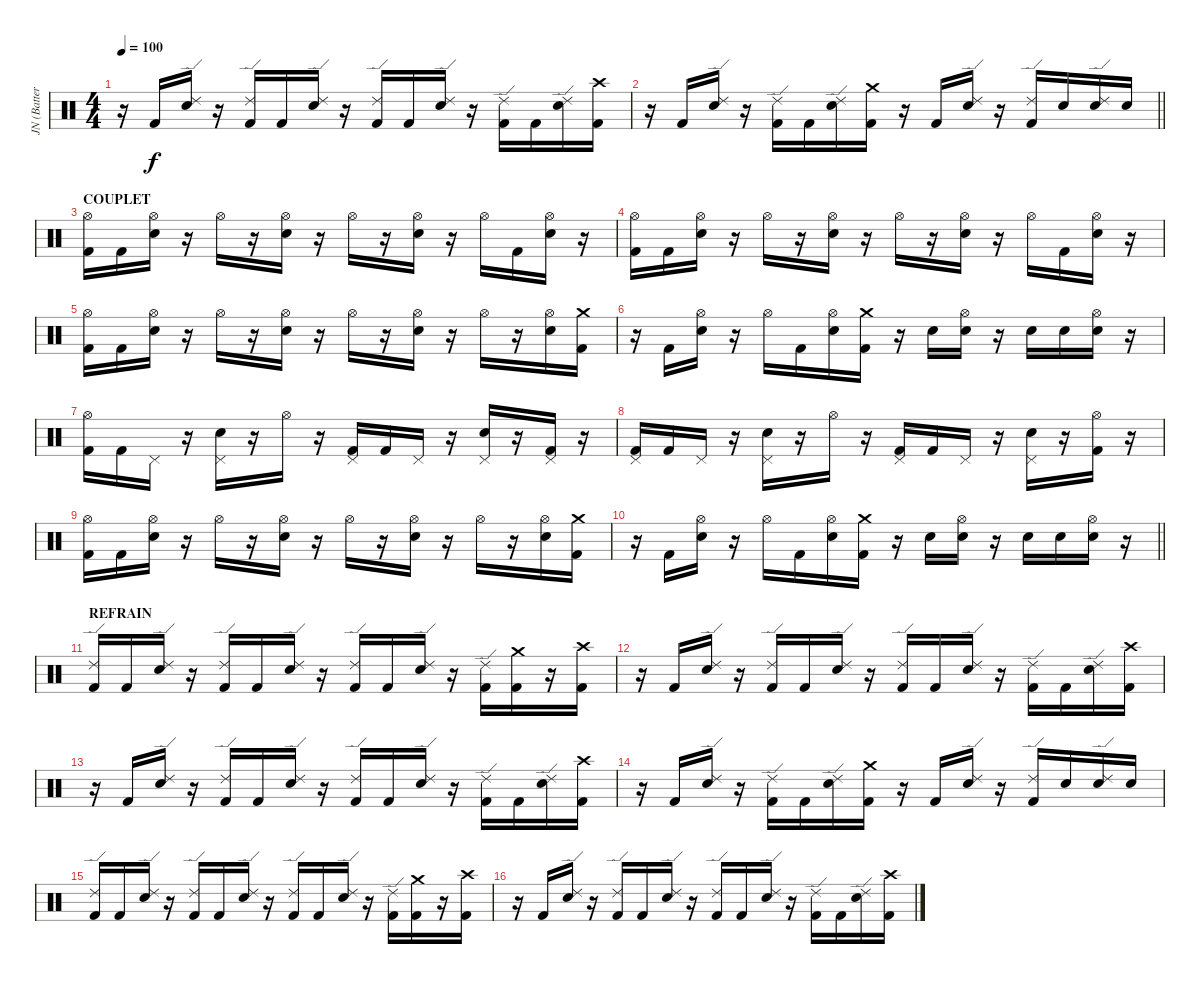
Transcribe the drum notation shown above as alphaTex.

\track ("JN (Batterie)" "JN (Batter") {instrument percussion}
\staff {score}
\articulation defaults
\ts (4 4)
\tempo 100
\clef neutral
\ks c
r.16{dy f} "Kick (hit) 2".16 ("Ride (edge) 2" "Electric Snare (hit)").16 r.16 ("Ride (edge) 2" "Kick (hit) 2").16 "Kick (hit) 2".16 ("Ride (edge) 2" "Electric Snare (hit)").16 r.16 ("Ride (edge) 2" "Kick (hit) 2").16 "Kick (hit) 2".16 ("Ride (edge) 2" "Electric Snare (hit)").16 r.16 ("Ride (edge) 2" "Kick (hit) 2").16 "Kick (hit) 2".16 ("Ride (edge) 2" "Electric Snare (hit)").16 ("Crash high (hit)" "Kick (hit) 2").16 |
\barLineRight lightlight
r.16 "Kick (hit) 2".16 ("Ride (edge) 2" "Electric Snare (hit)").16 r.16 ("Ride (edge) 2" "Kick (hit) 2").16 "Kick (hit) 2".16 ("Ride (edge) 2" "Electric Snare (hit)").16 ("Crash medium (hit)" "Kick (hit) 2").16 r.16 "Kick (hit) 2".16 ("Ride (edge) 2" "Electric Snare (hit)").16 r.16 ("Ride (edge) 2" "Kick (hit) 2").16 "Electric Snare (hit)".16 ("Ride (edge) 2" "Electric Snare (hit)").16 "Electric Snare (hit)".16 |
\section ("" "COUPLET")
("Hi-Hat (open)" "Kick (hit) 2").16 "Kick (hit) 2".16 ("Hi-Hat (open)" "Electric Snare (hit)").16 r.16 "Hi-Hat (open)".16 r.16 ("Hi-Hat (open)" "Electric Snare (hit)").16 r.16 "Hi-Hat (open)".16 r.16 ("Hi-Hat (open)" "Electric Snare (hit)").16 r.16 "Hi-Hat (open)".16 "Kick (hit) 2".16 ("Hi-Hat (open)" "Electric Snare (hit)").16 r.16 |
("Hi-Hat (open)" "Kick (hit) 2").16 "Kick (hit) 2".16 ("Hi-Hat (open)" "Electric Snare (hit)").16 r.16 "Hi-Hat (open)".16 r.16 ("Hi-Hat (open)" "Electric Snare (hit)").16 r.16 "Hi-Hat (open)".16 r.16 ("Hi-Hat (open)" "Electric Snare (hit)").16 r.16 "Hi-Hat (open)".16 "Kick (hit) 2".16 ("Hi-Hat (open)" "Electric Snare (hit)").16 r.16 |
("Hi-Hat (open)" "Kick (hit) 2").16 "Kick (hit) 2".16 ("Hi-Hat (open)" "Electric Snare (hit)").16 r.16 "Hi-Hat (open)".16 r.16 ("Hi-Hat (open)" "Electric Snare (hit)").16 r.16 "Hi-Hat (open)".16 r.16 ("Hi-Hat (open)" "Electric Snare (hit)").16 r.16 "Hi-Hat (open)".16 r.16 ("Hi-Hat (open)" "Electric Snare (hit)").16 ("Crash medium (hit)" "Kick (hit) 2").16 |
r.16 "Kick (hit) 2".16 ("Hi-Hat (open)" "Electric Snare (hit)").16 r.16 "Hi-Hat (open)".16 "Kick (hit) 2".16 ("Hi-Hat (open)" "Electric Snare (hit)").16 ("Crash medium (hit)" "Kick (hit) 2").16 r.16 "Electric Snare (hit)".16 ("Hi-Hat (open)" "Electric Snare (hit)").16 r.16 "Electric Snare (hit)".16 "Electric Snare (hit)".16 ("Hi-Hat (open)" "Electric Snare (hit)").16 r.16 |
("Hi-Hat (open)" "Kick (hit) 2").16 "Kick (hit) 2".16 "Pedal Hi-Hat (hit)".16 r.16 ("Pedal Hi-Hat (hit)" "Electric Snare (hit)").16 r.16 "Hi-Hat (open)".16 r.16 ("Pedal Hi-Hat (hit)" "Kick (hit) 2").16 "Kick (hit) 2".16 "Pedal Hi-Hat (hit)".16 r.16 ("Pedal Hi-Hat (hit)" "Electric Snare (hit)").16 r.16 ("Pedal Hi-Hat (hit)" "Kick (hit) 2").16 r.16 |
("Pedal Hi-Hat (hit)" "Kick (hit) 2").16 "Kick (hit) 2".16 "Pedal Hi-Hat (hit)".16 r.16 ("Pedal Hi-Hat (hit)" "Electric Snare (hit)").16 r.16 "Hi-Hat (open)".16 r.16 ("Pedal Hi-Hat (hit)" "Kick (hit) 2").16 "Kick (hit) 2".16 "Pedal Hi-Hat (hit)".16 r.16 ("Pedal Hi-Hat (hit)" "Electric Snare (hit)").16 r.16 ("Hi-Hat (open)" "Kick (hit) 2").16 r.16 |
("Hi-Hat (open)" "Kick (hit) 2").16 "Kick (hit) 2".16 ("Hi-Hat (open)" "Electric Snare (hit)").16 r.16 "Hi-Hat (open)".16 r.16 ("Hi-Hat (open)" "Electric Snare (hit)").16 r.16 "Hi-Hat (open)".16 r.16 ("Hi-Hat (open)" "Electric Snare (hit)").16 r.16 "Hi-Hat (open)".16 r.16 ("Hi-Hat (open)" "Electric Snare (hit)").16 ("Crash medium (hit)" "Kick (hit) 2").16 |
\barLineRight lightlight
r.16 "Kick (hit) 2".16 ("Hi-Hat (open)" "Electric Snare (hit)").16 r.16 "Hi-Hat (open)".16 "Kick (hit) 2".16 ("Hi-Hat (open)" "Electric Snare (hit)").16 ("Crash medium (hit)" "Kick (hit) 2").16 r.16 "Electric Snare (hit)".16 ("Hi-Hat (open)" "Electric Snare (hit)").16 r.16 "Electric Snare (hit)".16 "Electric Snare (hit)".16 ("Hi-Hat (open)" "Electric Snare (hit)").16 r.16 |
\section ("" "REFRAIN")
("Ride (edge) 2" "Kick (hit) 2").16 "Kick (hit) 2".16 ("Ride (edge) 2" "Electric Snare (hit)").16 r.16 ("Ride (edge) 2" "Kick (hit) 2").16 "Kick (hit) 2".16 ("Ride (edge) 2" "Electric Snare (hit)").16 r.16 ("Ride (edge) 2" "Kick (hit) 2").16 "Kick (hit) 2".16 ("Ride (edge) 2" "Electric Snare (hit)").16 r.16 ("Ride (edge) 2" "Kick (hit) 2").16 ("Crash medium (hit)" "Kick (hit) 2").16 r.16 ("Crash high (hit)" "Kick (hit) 2").16 |
r.16 "Kick (hit) 2".16 ("Ride (edge) 2" "Electric Snare (hit)").16 r.16 ("Ride (edge) 2" "Kick (hit) 2").16 "Kick (hit) 2".16 ("Ride (edge) 2" "Electric Snare (hit)").16 r.16 ("Ride (edge) 2" "Kick (hit) 2").16 "Kick (hit) 2".16 ("Ride (edge) 2" "Electric Snare (hit)").16 r.16 ("Ride (edge) 2" "Kick (hit) 2").16 "Kick (hit) 2".16 ("Ride (edge) 2" "Electric Snare (hit)").16 ("Crash high (hit)" "Kick (hit) 2").16 |
r.16 "Kick (hit) 2".16 ("Ride (edge) 2" "Electric Snare (hit)").16 r.16 ("Ride (edge) 2" "Kick (hit) 2").16 "Kick (hit) 2".16 ("Ride (edge) 2" "Electric Snare (hit)").16 r.16 ("Ride (edge) 2" "Kick (hit) 2").16 "Kick (hit) 2".16 ("Ride (edge) 2" "Electric Snare (hit)").16 r.16 ("Ride (edge) 2" "Kick (hit) 2").16 "Kick (hit) 2".16 ("Ride (edge) 2" "Electric Snare (hit)").16 ("Crash high (hit)" "Kick (hit) 2").16 |
r.16 "Kick (hit) 2".16 ("Ride (edge) 2" "Electric Snare (hit)").16 r.16 ("Ride (edge) 2" "Kick (hit) 2").16 "Kick (hit) 2".16 ("Ride (edge) 2" "Electric Snare (hit)").16 ("Crash medium (hit)" "Kick (hit) 2").16 r.16 "Kick (hit) 2".16 ("Ride (edge) 2" "Electric Snare (hit)").16 r.16 ("Ride (edge) 2" "Kick (hit) 2").16 "Electric Snare (hit)".16 ("Ride (edge) 2" "Electric Snare (hit)").16 "Electric Snare (hit)".16 |
("Ride (edge) 2" "Kick (hit) 2").16 "Kick (hit) 2".16 ("Ride (edge) 2" "Electric Snare (hit)").16 r.16 ("Ride (edge) 2" "Kick (hit) 2").16 "Kick (hit) 2".16 ("Ride (edge) 2" "Electric Snare (hit)").16 r.16 ("Ride (edge) 2" "Kick (hit) 2").16 "Kick (hit) 2".16 ("Ride (edge) 2" "Electric Snare (hit)").16 r.16 ("Ride (edge) 2" "Kick (hit) 2").16 ("Crash medium (hit)" "Kick (hit) 2").16 r.16 ("Crash high (hit)" "Kick (hit) 2").16 |
r.16 "Kick (hit) 2".16 ("Ride (edge) 2" "Electric Snare (hit)").16 r.16 ("Ride (edge) 2" "Kick (hit) 2").16 "Kick (hit) 2".16 ("Ride (edge) 2" "Electric Snare (hit)").16 r.16 ("Ride (edge) 2" "Kick (hit) 2").16 "Kick (hit) 2".16 ("Ride (edge) 2" "Electric Snare (hit)").16 r.16 ("Ride (edge) 2" "Kick (hit) 2").16 "Kick (hit) 2".16 ("Ride (edge) 2" "Electric Snare (hit)").16 ("Crash high (hit)" "Kick (hit) 2").16
